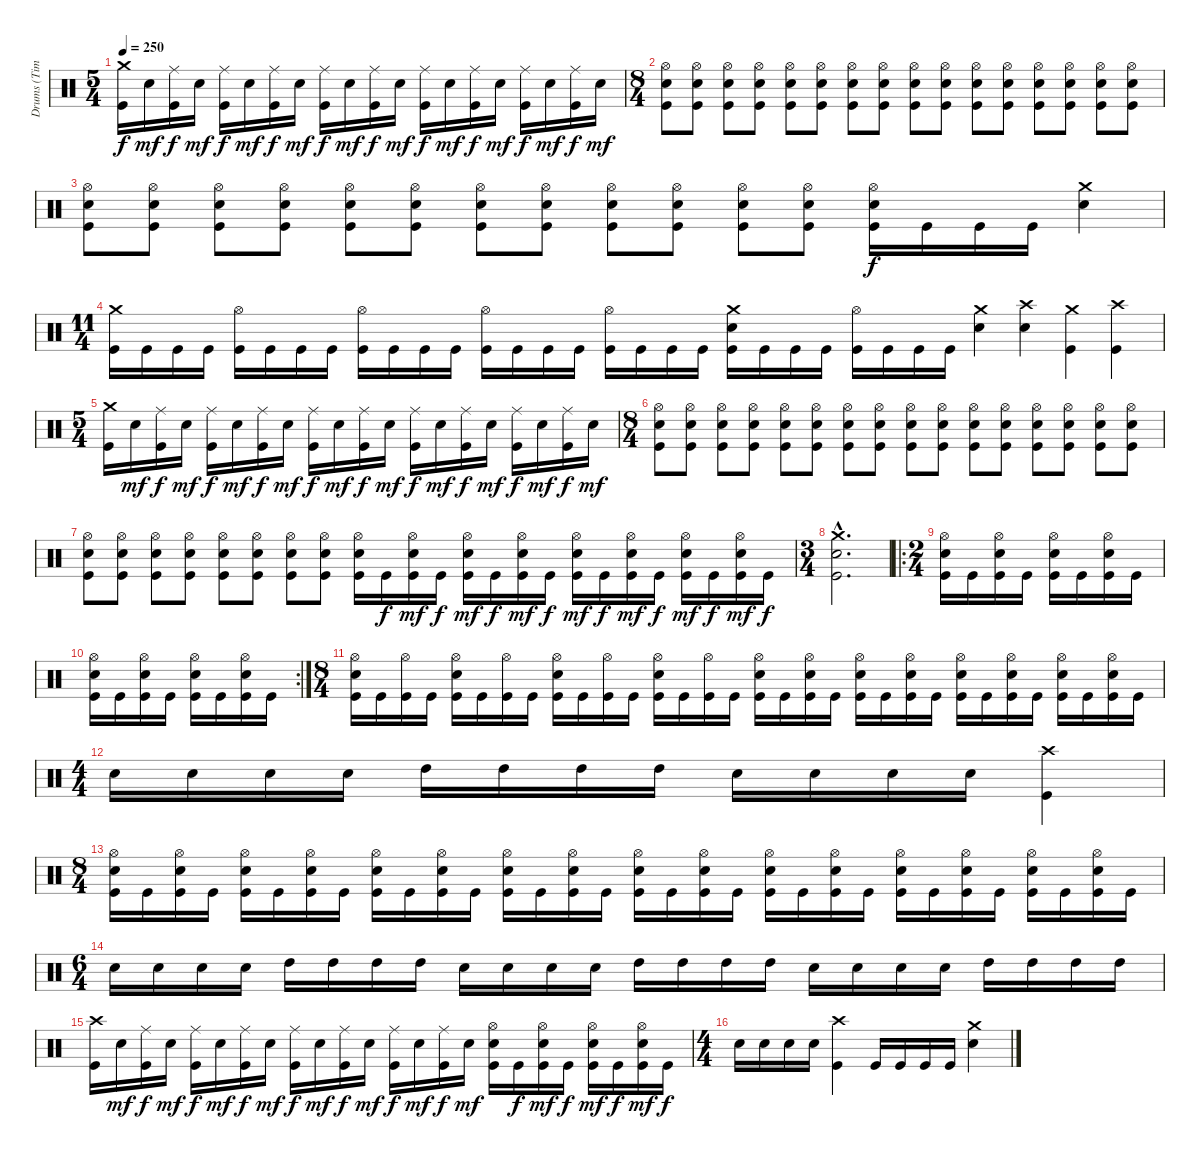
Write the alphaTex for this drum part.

\track ("Drums (Tim Yeung)" "Drums (Tim") {instrument percussion}
\staff {score}
\articulation defaults
\ts (5 4)
\tempo 250
\clef neutral
\ks c
("Crash medium (hit)" "Kick (hit)").16{dy f} "Electric Snare (hit)".16{dy mf} ("Ride (middle)" "Kick (hit)").16{dy f} "Electric Snare (hit)".16{dy mf} ("Ride (middle)" "Kick (hit)").16{dy f} "Electric Snare (hit)".16{dy mf} ("Ride (middle)" "Kick (hit)").16{dy f} "Electric Snare (hit)".16{dy mf} ("Ride (middle)" "Kick (hit)").16{dy f} "Electric Snare (hit)".16{dy mf} ("Ride (middle)" "Kick (hit)").16{dy f} "Electric Snare (hit)".16{dy mf} ("Ride (middle)" "Kick (hit)").16{dy f} "Electric Snare (hit)".16{dy mf} ("Ride (middle)" "Kick (hit)").16{dy f} "Electric Snare (hit)".16{dy mf} ("Ride (middle)" "Kick (hit)").16{dy f} "Electric Snare (hit)".16{dy mf} ("Ride (middle)" "Kick (hit)").16{dy f} "Electric Snare (hit)".16{dy mf} |
\ts (8 4)
("Hi-Hat (open)" "Electric Snare (hit)" "Kick (hit)").8 ("Hi-Hat (open)" "Electric Snare (hit)" "Kick (hit)").8 ("Hi-Hat (open)" "Electric Snare (hit)" "Kick (hit)").8 ("Hi-Hat (open)" "Electric Snare (hit)" "Kick (hit)").8 ("Hi-Hat (open)" "Electric Snare (hit)" "Kick (hit)").8 ("Hi-Hat (open)" "Electric Snare (hit)" "Kick (hit)").8 ("Hi-Hat (open)" "Electric Snare (hit)" "Kick (hit)").8 ("Hi-Hat (open)" "Electric Snare (hit)" "Kick (hit)").8 ("Hi-Hat (open)" "Electric Snare (hit)" "Kick (hit)").8 ("Hi-Hat (open)" "Electric Snare (hit)" "Kick (hit)").8 ("Hi-Hat (open)" "Electric Snare (hit)" "Kick (hit)").8 ("Hi-Hat (open)" "Electric Snare (hit)" "Kick (hit)").8 ("Hi-Hat (open)" "Electric Snare (hit)" "Kick (hit)").8 ("Hi-Hat (open)" "Electric Snare (hit)" "Kick (hit)").8 ("Hi-Hat (open)" "Electric Snare (hit)" "Kick (hit)").8 ("Hi-Hat (open)" "Electric Snare (hit)" "Kick (hit)").8 |
("Hi-Hat (open)" "Electric Snare (hit)" "Kick (hit)").8 ("Hi-Hat (open)" "Electric Snare (hit)" "Kick (hit)").8 ("Hi-Hat (open)" "Electric Snare (hit)" "Kick (hit)").8 ("Hi-Hat (open)" "Electric Snare (hit)" "Kick (hit)").8 ("Hi-Hat (open)" "Electric Snare (hit)" "Kick (hit)").8 ("Hi-Hat (open)" "Electric Snare (hit)" "Kick (hit)").8 ("Hi-Hat (open)" "Electric Snare (hit)" "Kick (hit)").8 ("Hi-Hat (open)" "Electric Snare (hit)" "Kick (hit)").8 ("Hi-Hat (open)" "Electric Snare (hit)" "Kick (hit)").8 ("Hi-Hat (open)" "Electric Snare (hit)" "Kick (hit)").8 ("Hi-Hat (open)" "Electric Snare (hit)" "Kick (hit)").8 ("Hi-Hat (open)" "Electric Snare (hit)" "Kick (hit)").8 ("Hi-Hat (open)" "Electric Snare (hit)" "Kick (hit)").16{dy f} "Kick (hit)".16 "Kick (hit)".16 "Kick (hit)".16 ("Crash medium (hit)" "Electric Snare (hit)").4 |
\ts (11 4)
("Crash medium (hit)" "Kick (hit)").16 "Kick (hit)".16 "Kick (hit)".16 "Kick (hit)".16 ("Hi-Hat (open)" "Kick (hit)").16 "Kick (hit)".16 "Kick (hit)".16 "Kick (hit)".16 ("Hi-Hat (open)" "Kick (hit)").16 "Kick (hit)".16 "Kick (hit)".16 "Kick (hit)".16 ("Hi-Hat (open)" "Kick (hit)").16 "Kick (hit)".16 "Kick (hit)".16 "Kick (hit)".16 ("Hi-Hat (open)" "Kick (hit)").16 "Kick (hit)".16 "Kick (hit)".16 "Kick (hit)".16 ("Crash medium (hit)" "Electric Snare (hit)" "Kick (hit)").16 "Kick (hit)".16 "Kick (hit)".16 "Kick (hit)".16 ("Hi-Hat (open)" "Kick (hit)").16 "Kick (hit)".16 "Kick (hit)".16 "Kick (hit)".16 ("Crash medium (hit)" "Electric Snare (hit)").4 ("Crash high (hit)" "Electric Snare (hit)").4 ("Crash medium (hit)" "Kick (hit)").4 ("Crash high (hit)" "Kick (hit)").4 |
\ts (5 4)
("Crash medium (hit)" "Kick (hit)").16 "Electric Snare (hit)".16{dy mf} ("Ride (middle)" "Kick (hit)").16{dy f} "Electric Snare (hit)".16{dy mf} ("Ride (middle)" "Kick (hit)").16{dy f} "Electric Snare (hit)".16{dy mf} ("Ride (middle)" "Kick (hit)").16{dy f} "Electric Snare (hit)".16{dy mf} ("Ride (middle)" "Kick (hit)").16{dy f} "Electric Snare (hit)".16{dy mf} ("Ride (middle)" "Kick (hit)").16{dy f} "Electric Snare (hit)".16{dy mf} ("Ride (middle)" "Kick (hit)").16{dy f} "Electric Snare (hit)".16{dy mf} ("Ride (middle)" "Kick (hit)").16{dy f} "Electric Snare (hit)".16{dy mf} ("Ride (middle)" "Kick (hit)").16{dy f} "Electric Snare (hit)".16{dy mf} ("Ride (middle)" "Kick (hit)").16{dy f} "Electric Snare (hit)".16{dy mf} |
\ts (8 4)
("Hi-Hat (open)" "Electric Snare (hit)" "Kick (hit)").8 ("Hi-Hat (open)" "Electric Snare (hit)" "Kick (hit)").8 ("Hi-Hat (open)" "Electric Snare (hit)" "Kick (hit)").8 ("Hi-Hat (open)" "Electric Snare (hit)" "Kick (hit)").8 ("Hi-Hat (open)" "Electric Snare (hit)" "Kick (hit)").8 ("Hi-Hat (open)" "Electric Snare (hit)" "Kick (hit)").8 ("Hi-Hat (open)" "Electric Snare (hit)" "Kick (hit)").8 ("Hi-Hat (open)" "Electric Snare (hit)" "Kick (hit)").8 ("Hi-Hat (open)" "Electric Snare (hit)" "Kick (hit)").8 ("Hi-Hat (open)" "Electric Snare (hit)" "Kick (hit)").8 ("Hi-Hat (open)" "Electric Snare (hit)" "Kick (hit)").8 ("Hi-Hat (open)" "Electric Snare (hit)" "Kick (hit)").8 ("Hi-Hat (open)" "Electric Snare (hit)" "Kick (hit)").8 ("Hi-Hat (open)" "Electric Snare (hit)" "Kick (hit)").8 ("Hi-Hat (open)" "Electric Snare (hit)" "Kick (hit)").8 ("Hi-Hat (open)" "Electric Snare (hit)" "Kick (hit)").8 |
("Hi-Hat (open)" "Electric Snare (hit)" "Kick (hit)").8 ("Hi-Hat (open)" "Electric Snare (hit)" "Kick (hit)").8 ("Hi-Hat (open)" "Electric Snare (hit)" "Kick (hit)").8 ("Hi-Hat (open)" "Electric Snare (hit)" "Kick (hit)").8 ("Hi-Hat (open)" "Electric Snare (hit)" "Kick (hit)").8 ("Hi-Hat (open)" "Electric Snare (hit)" "Kick (hit)").8 ("Hi-Hat (open)" "Electric Snare (hit)" "Kick (hit)").8 ("Hi-Hat (open)" "Electric Snare (hit)" "Kick (hit)").8 ("Hi-Hat (open)" "Electric Snare (hit)" "Kick (hit)").16 "Kick (hit)".16{dy f} ("Hi-Hat (open)" "Electric Snare (hit)" "Kick (hit)").16{dy mf} "Kick (hit)".16{dy f} ("Hi-Hat (open)" "Electric Snare (hit)" "Kick (hit)").16{dy mf} "Kick (hit)".16{dy f} ("Hi-Hat (open)" "Electric Snare (hit)" "Kick (hit)").16{dy mf} "Kick (hit)".16{dy f} ("Hi-Hat (open)" "Electric Snare (hit)" "Kick (hit)").16{dy mf} "Kick (hit)".16{dy f} ("Hi-Hat (open)" "Electric Snare (hit)" "Kick (hit)").16{dy mf} "Kick (hit)".16{dy f} ("Hi-Hat (open)" "Electric Snare (hit)" "Kick (hit)").16{dy mf} "Kick (hit)".16{dy f} ("Hi-Hat (open)" "Electric Snare (hit)" "Kick (hit)").16{dy mf} "Kick (hit)".16{dy f} |
\ts (3 4)
("Crash medium (hit)"{hac} "Electric Snare (hit)"{hac} "Kick (hit)"{hac}).2{d} |
\ro
\ts (2 4)
("Hi-Hat (open)" "Electric Snare (hit)" "Kick (hit)").16 "Kick (hit)".16 ("Hi-Hat (open)" "Electric Snare (hit)" "Kick (hit)").16 "Kick (hit)".16 ("Hi-Hat (open)" "Electric Snare (hit)" "Kick (hit)").16 "Kick (hit)".16 ("Hi-Hat (open)" "Electric Snare (hit)" "Kick (hit)").16 "Kick (hit)".16 |
\rc 2
("Hi-Hat (open)" "Electric Snare (hit)" "Kick (hit)").16 "Kick (hit)".16 ("Hi-Hat (open)" "Electric Snare (hit)" "Kick (hit)").16 "Kick (hit)".16 ("Hi-Hat (open)" "Electric Snare (hit)" "Kick (hit)").16 "Kick (hit)".16 ("Hi-Hat (open)" "Electric Snare (hit)" "Kick (hit)").16 "Kick (hit)".16 |
\ts (8 4)
("Hi-Hat (open)" "Electric Snare (hit)" "Kick (hit)").16 "Kick (hit)".16 ("Hi-Hat (open)" "Kick (hit)").16 "Kick (hit)".16 ("Hi-Hat (open)" "Electric Snare (hit)" "Kick (hit)").16 "Kick (hit)".16 ("Hi-Hat (open)" "Kick (hit)").16 "Kick (hit)".16 ("Hi-Hat (open)" "Electric Snare (hit)" "Kick (hit)").16 "Kick (hit)".16 ("Hi-Hat (open)" "Kick (hit)").16 "Kick (hit)".16 ("Hi-Hat (open)" "Electric Snare (hit)" "Kick (hit)").16 "Kick (hit)".16 ("Hi-Hat (open)" "Kick (hit)").16 "Kick (hit)".16 ("Hi-Hat (open)" "Electric Snare (hit)" "Kick (hit)").16 "Kick (hit)".16 ("Hi-Hat (open)" "Electric Snare (hit)" "Kick (hit)").16 "Kick (hit)".16 ("Hi-Hat (open)" "Electric Snare (hit)" "Kick (hit)").16 "Kick (hit)".16 ("Hi-Hat (open)" "Electric Snare (hit)" "Kick (hit)").16 "Kick (hit)".16 ("Hi-Hat (open)" "Electric Snare (hit)" "Kick (hit)").16 "Kick (hit)".16 ("Hi-Hat (open)" "Electric Snare (hit)" "Kick (hit)").16 "Kick (hit)".16 ("Hi-Hat (open)" "Electric Snare (hit)" "Kick (hit)").16 "Kick (hit)".16 ("Hi-Hat (open)" "Electric Snare (hit)" "Kick (hit)").16 "Kick (hit)".16 |
\ts (4 4)
"Electric Snare (hit)".16 "Electric Snare (hit)".16 "Electric Snare (hit)".16 "Electric Snare (hit)".16 "High Tom (hit)".16 "High Tom (hit)".16 "High Tom (hit)".16 "High Tom (hit)".16 "Electric Snare (hit)".16 "Electric Snare (hit)".16 "Electric Snare (hit)".16 "Electric Snare (hit)".16 ("Crash high (hit)" "Kick (hit)").4 |
\ts (8 4)
("Hi-Hat (open)" "Electric Snare (hit)" "Kick (hit)").16 "Kick (hit)".16 ("Hi-Hat (open)" "Electric Snare (hit)" "Kick (hit)").16 "Kick (hit)".16 ("Hi-Hat (open)" "Electric Snare (hit)" "Kick (hit)").16 "Kick (hit)".16 ("Hi-Hat (open)" "Electric Snare (hit)" "Kick (hit)").16 "Kick (hit)".16 ("Hi-Hat (open)" "Electric Snare (hit)" "Kick (hit)").16 "Kick (hit)".16 ("Hi-Hat (open)" "Electric Snare (hit)" "Kick (hit)").16 "Kick (hit)".16 ("Hi-Hat (open)" "Electric Snare (hit)" "Kick (hit)").16 "Kick (hit)".16 ("Hi-Hat (open)" "Electric Snare (hit)" "Kick (hit)").16 "Kick (hit)".16 ("Hi-Hat (open)" "Electric Snare (hit)" "Kick (hit)").16 "Kick (hit)".16 ("Hi-Hat (open)" "Electric Snare (hit)" "Kick (hit)").16 "Kick (hit)".16 ("Hi-Hat (open)" "Electric Snare (hit)" "Kick (hit)").16 "Kick (hit)".16 ("Hi-Hat (open)" "Electric Snare (hit)" "Kick (hit)").16 "Kick (hit)".16 ("Hi-Hat (open)" "Electric Snare (hit)" "Kick (hit)").16 "Kick (hit)".16 ("Hi-Hat (open)" "Electric Snare (hit)" "Kick (hit)").16 "Kick (hit)".16 ("Hi-Hat (open)" "Electric Snare (hit)" "Kick (hit)").16 "Kick (hit)".16 ("Hi-Hat (open)" "Electric Snare (hit)" "Kick (hit)").16 "Kick (hit)".16 |
\ts (6 4)
"Electric Snare (hit)".16 "Electric Snare (hit)".16 "Electric Snare (hit)".16 "Electric Snare (hit)".16 "High Tom (hit)".16 "High Tom (hit)".16 "High Tom (hit)".16 "High Tom (hit)".16 "Electric Snare (hit)".16 "Electric Snare (hit)".16 "Electric Snare (hit)".16 "Electric Snare (hit)".16 "High Tom (hit)".16 "High Tom (hit)".16 "High Tom (hit)".16 "High Tom (hit)".16 "Electric Snare (hit)".16 "Electric Snare (hit)".16 "Electric Snare (hit)".16 "Electric Snare (hit)".16 "High Tom (hit)".16 "High Tom (hit)".16 "High Tom (hit)".16 "High Tom (hit)".16 |
("Crash high (hit)" "Kick (hit)").16 "Electric Snare (hit)".16{dy mf} ("Ride (middle)" "Kick (hit)").16{dy f} "Electric Snare (hit)".16{dy mf} ("Ride (middle)" "Kick (hit)").16{dy f} "Electric Snare (hit)".16{dy mf} ("Ride (middle)" "Kick (hit)").16{dy f} "Electric Snare (hit)".16{dy mf} ("Ride (middle)" "Kick (hit)").16{dy f} "Electric Snare (hit)".16{dy mf} ("Ride (middle)" "Kick (hit)").16{dy f} "Electric Snare (hit)".16{dy mf} ("Ride (middle)" "Kick (hit)").16{dy f} "Electric Snare (hit)".16{dy mf} ("Ride (middle)" "Kick (hit)").16{dy f} "Electric Snare (hit)".16{dy mf} ("Hi-Hat (open)" "Electric Snare (hit)" "Kick (hit)").16 "Kick (hit)".16{dy f} ("Hi-Hat (open)" "Electric Snare (hit)" "Kick (hit)").16{dy mf} "Kick (hit)".16{dy f} ("Hi-Hat (open)" "Electric Snare (hit)" "Kick (hit)").16{dy mf} "Kick (hit)".16{dy f} ("Hi-Hat (open)" "Electric Snare (hit)" "Kick (hit)").16{dy mf} "Kick (hit)".16{dy f} |
\ts (4 4)
"Electric Snare (hit)".16 "Electric Snare (hit)".16 "Electric Snare (hit)".16 "Electric Snare (hit)".16 ("Crash high (hit)" "Kick (hit)").4 "Kick (hit)".16 "Kick (hit)".16 "Kick (hit)".16 "Kick (hit)".16 ("Crash medium (hit)" "Electric Snare (hit)").4
